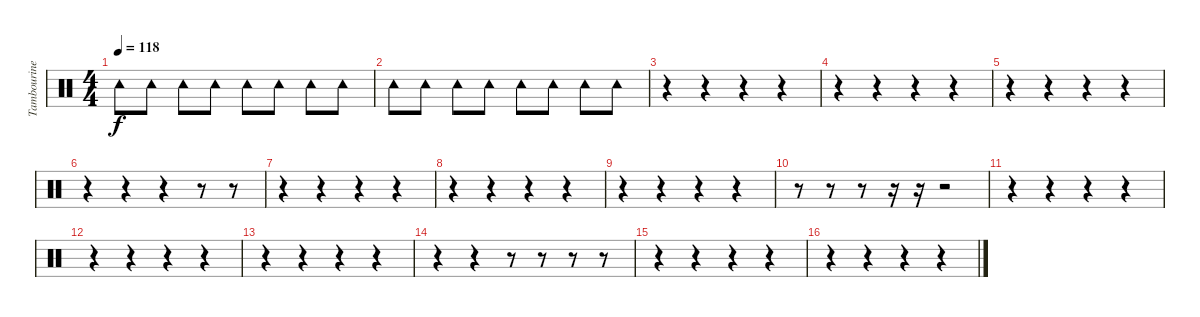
\track ("Tambourine" "Tambourine") {instrument percussion}
\staff {score}
\articulation defaults
\ts (4 4)
\tempo 118
\clef neutral
\ks c "Tambourine (hit)".8{dy f} "Tambourine (hit)".8 "Tambourine (hit)".8 "Tambourine (hit)".8 "Tambourine (hit)".8 "Tambourine (hit)".8 "Tambourine (hit)".8 "Tambourine (hit)".8
|
"Tambourine (hit)".8 "Tambourine (hit)".8 "Tambourine (hit)".8 "Tambourine (hit)".8 "Tambourine (hit)".8 "Tambourine (hit)".8 "Tambourine (hit)".8 "Tambourine (hit)".8 |
r.4 r.4 r.4 r.4 |
r.4 r.4 r.4 r.4 |
r.4 r.4 r.4 r.4 |
r.4 r.4 r.4 r.8 r.8 |
r.4 r.4 r.4 r.4 |
r.4 r.4 r.4 r.4 |
r.4 r.4 r.4 r.4 |
r.8 r.8 r.8 r.16 r.16 r.2 |
r.4 r.4 r.4 r.4 |
r.4 r.4 r.4 r.4 |
r.4 r.4 r.4 r.4 |
r.4 r.4 r.8 r.8 r.8 r.8 |
r.4 r.4 r.4 r.4 |
r.4 r.4 r.4 r.4
